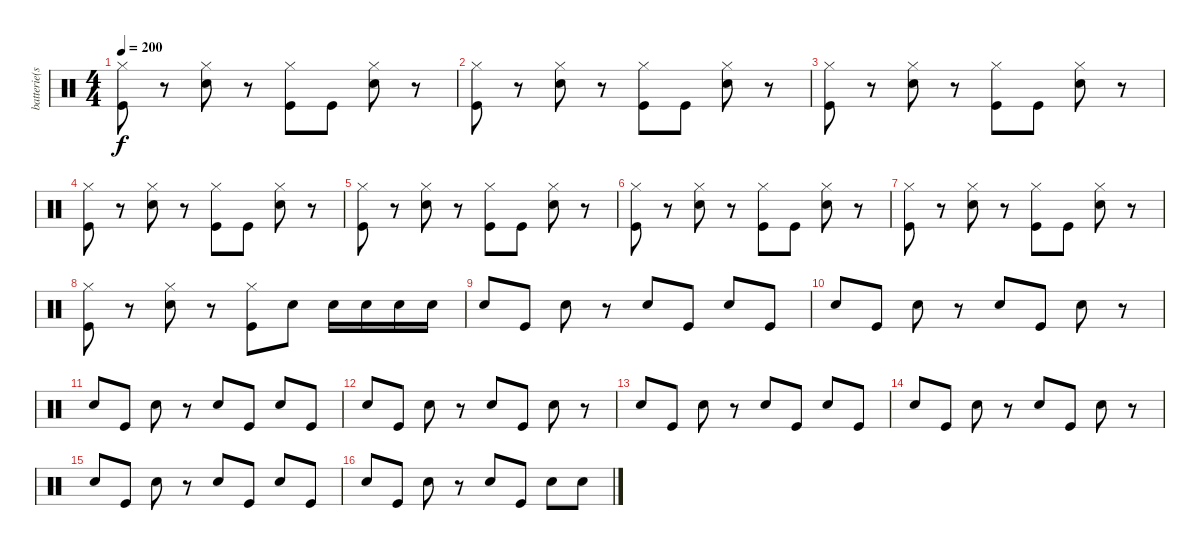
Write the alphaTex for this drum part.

\track ("batterie(scott)" "batterie(s") {instrument percussion}
\staff {score}
\articulation defaults
\ts (4 4)
\tempo 200
\clef neutral
\ks c
("Hi-Hat (closed)" "Kick (hit)").8{dy f} r.8 ("Hi-Hat (closed)" "Snare (hit) 2").8 r.8 ("Hi-Hat (closed)" "Kick (hit)").8 "Kick (hit)".8 ("Hi-Hat (closed)" "Snare (hit) 2").8 r.8 |
("Hi-Hat (closed)" "Kick (hit)").8 r.8 ("Hi-Hat (closed)" "Snare (hit) 2").8 r.8 ("Hi-Hat (closed)" "Kick (hit)").8 "Kick (hit)".8 ("Hi-Hat (closed)" "Snare (hit) 2").8 r.8 |
("Hi-Hat (closed)" "Kick (hit)").8 r.8 ("Hi-Hat (closed)" "Snare (hit) 2").8 r.8 ("Hi-Hat (closed)" "Kick (hit)").8 "Kick (hit)".8 ("Hi-Hat (closed)" "Snare (hit) 2").8 r.8 |
("Hi-Hat (closed)" "Kick (hit)").8 r.8 ("Hi-Hat (closed)" "Snare (hit) 2").8 r.8 ("Hi-Hat (closed)" "Kick (hit)").8 "Kick (hit)".8 ("Hi-Hat (closed)" "Snare (hit) 2").8 r.8 |
("Hi-Hat (closed)" "Kick (hit)").8 r.8 ("Hi-Hat (closed)" "Snare (hit) 2").8 r.8 ("Hi-Hat (closed)" "Kick (hit)").8 "Kick (hit)".8 ("Hi-Hat (closed)" "Snare (hit) 2").8 r.8 |
("Hi-Hat (closed)" "Kick (hit)").8 r.8 ("Hi-Hat (closed)" "Snare (hit) 2").8 r.8 ("Hi-Hat (closed)" "Kick (hit)").8 "Kick (hit)".8 ("Hi-Hat (closed)" "Snare (hit) 2").8 r.8 |
("Hi-Hat (closed)" "Kick (hit)").8 r.8 ("Hi-Hat (closed)" "Snare (hit) 2").8 r.8 ("Hi-Hat (closed)" "Kick (hit)").8 "Kick (hit)".8 ("Hi-Hat (closed)" "Snare (hit) 2").8 r.8 |
("Hi-Hat (closed)" "Kick (hit)").8 r.8 ("Hi-Hat (closed)" "Snare (hit) 2").8 r.8 ("Hi-Hat (closed)" "Kick (hit)").8 "Snare (hit) 2".8 "Snare (hit) 2".16 "Snare (hit) 2".16 "Snare (hit) 2".16 "Snare (hit) 2".16 |
"Snare (hit) 2".8 "Kick (hit)".8 "Snare (hit) 2".8 r.8 "Snare (hit) 2".8 "Kick (hit)".8 "Snare (hit) 2".8 "Kick (hit)".8 |
"Snare (hit) 2".8 "Kick (hit)".8 "Snare (hit) 2".8 r.8 "Snare (hit) 2".8 "Kick (hit)".8 "Snare (hit) 2".8 r.8 |
"Snare (hit) 2".8 "Kick (hit)".8 "Snare (hit) 2".8 r.8 "Snare (hit) 2".8 "Kick (hit)".8 "Snare (hit) 2".8 "Kick (hit)".8 |
"Snare (hit) 2".8 "Kick (hit)".8 "Snare (hit) 2".8 r.8 "Snare (hit) 2".8 "Kick (hit)".8 "Snare (hit) 2".8 r.8 |
"Snare (hit) 2".8 "Kick (hit)".8 "Snare (hit) 2".8 r.8 "Snare (hit) 2".8 "Kick (hit)".8 "Snare (hit) 2".8 "Kick (hit)".8 |
"Snare (hit) 2".8 "Kick (hit)".8 "Snare (hit) 2".8 r.8 "Snare (hit) 2".8 "Kick (hit)".8 "Snare (hit) 2".8 r.8 |
"Snare (hit) 2".8 "Kick (hit)".8 "Snare (hit) 2".8 r.8 "Snare (hit) 2".8 "Kick (hit)".8 "Snare (hit) 2".8 "Kick (hit)".8 |
"Snare (hit) 2".8 "Kick (hit)".8 "Snare (hit) 2".8 r.8 "Snare (hit) 2".8 "Kick (hit)".8 "Snare (hit) 2".8 "Snare (hit) 2".8
